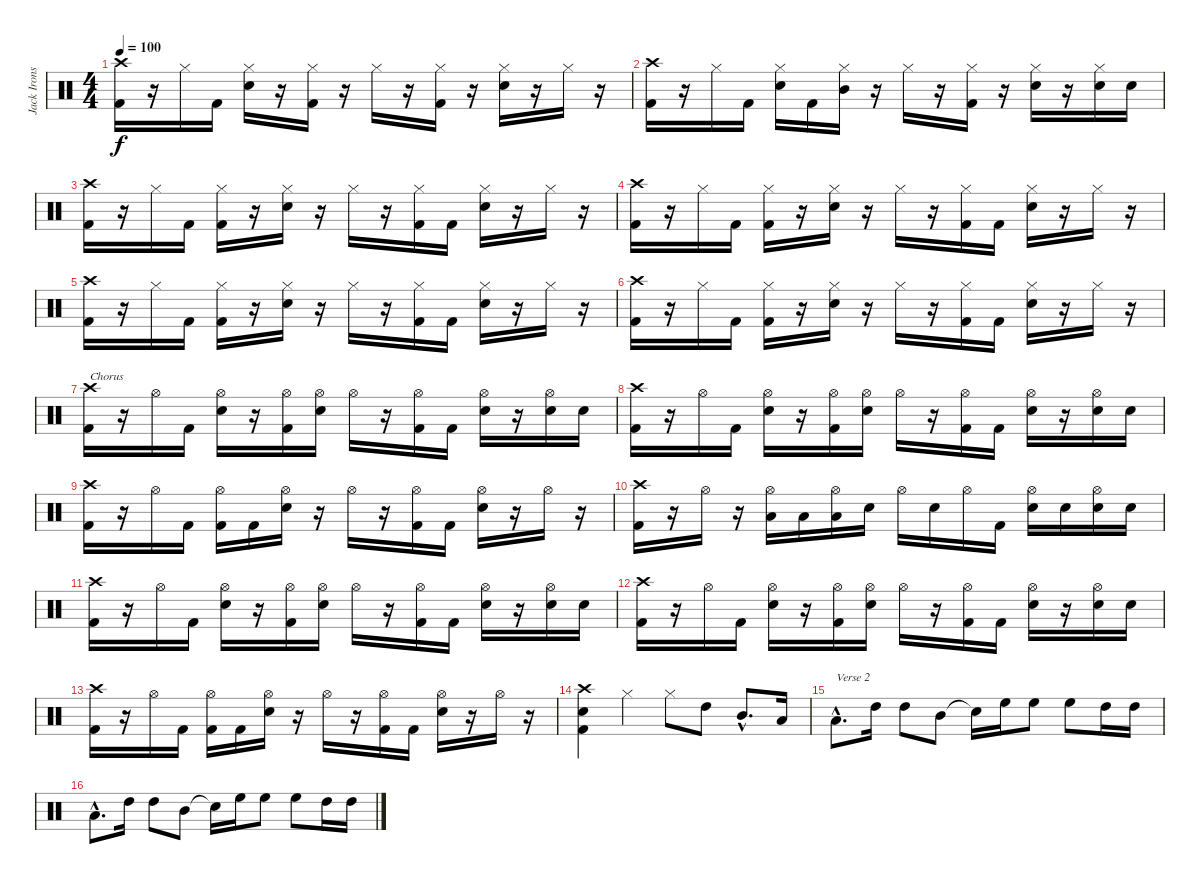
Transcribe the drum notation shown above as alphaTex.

\track ("Jack Irons" "Jack Irons") {instrument percussion}
\staff {score}
\articulation defaults
\ts (4 4)
\tempo 100
\clef neutral
\ks c
("Crash high (hit)" "Kick (hit) 2").16{dy f} r.16 "Hi-Hat (closed)".16 "Kick (hit) 2".16 ("Hi-Hat (closed)" "Snare (hit) 2").16 r.16 ("Hi-Hat (closed)" "Kick (hit) 2").16 r.16 "Hi-Hat (closed)".16 r.16 ("Hi-Hat (closed)" "Kick (hit) 2").16 r.16 ("Hi-Hat (closed)" "Snare (hit) 2").16 r.16 "Hi-Hat (closed)".16 r.16 |
("Crash high (hit)" "Kick (hit) 2").16 r.16 "Hi-Hat (closed)".16 "Kick (hit) 2".16 ("Hi-Hat (closed)" "Snare (hit) 2").16 "Kick (hit) 2".16 ("Hi-Hat (closed)" "Mid Tom (hit)").16 r.16 "Hi-Hat (closed)".16 r.16 ("Hi-Hat (closed)" "Kick (hit) 2").16 r.16 ("Hi-Hat (closed)" "Snare (hit) 2").16 r.16 ("Hi-Hat (closed)" "Snare (hit) 2").16 "Snare (hit) 2".16 |
("Crash high (hit)" "Kick (hit) 2").16 r.16 "Hi-Hat (closed)".16 "Kick (hit) 2".16 ("Hi-Hat (closed)" "Kick (hit) 2").16 r.16 ("Hi-Hat (closed)" "Snare (hit) 2").16 r.16 "Hi-Hat (closed)".16 r.16 ("Hi-Hat (closed)" "Kick (hit) 2").16 "Kick (hit) 2".16 ("Hi-Hat (closed)" "Snare (hit) 2").16 r.16 "Hi-Hat (closed)".16 r.16 |
("Crash high (hit)" "Kick (hit) 2").16 r.16 "Hi-Hat (closed)".16 "Kick (hit) 2".16 ("Hi-Hat (closed)" "Kick (hit) 2").16 r.16 ("Hi-Hat (closed)" "Snare (hit) 2").16 r.16 "Hi-Hat (closed)".16 r.16 ("Hi-Hat (closed)" "Kick (hit) 2").16 "Kick (hit) 2".16 ("Hi-Hat (closed)" "Snare (hit) 2").16 r.16 "Hi-Hat (closed)".16 r.16 |
("Crash high (hit)" "Kick (hit) 2").16 r.16 "Hi-Hat (closed)".16 "Kick (hit) 2".16 ("Hi-Hat (closed)" "Kick (hit) 2").16 r.16 ("Hi-Hat (closed)" "Snare (hit) 2").16 r.16 "Hi-Hat (closed)".16 r.16 ("Hi-Hat (closed)" "Kick (hit) 2").16 "Kick (hit) 2".16 ("Hi-Hat (closed)" "Snare (hit) 2").16 r.16 "Hi-Hat (closed)".16 r.16 |
("Crash high (hit)" "Kick (hit) 2").16 r.16 "Hi-Hat (closed)".16 "Kick (hit) 2".16 ("Hi-Hat (closed)" "Kick (hit) 2").16 r.16 ("Hi-Hat (closed)" "Snare (hit) 2").16 r.16 "Hi-Hat (closed)".16 r.16 ("Hi-Hat (closed)" "Kick (hit) 2").16 "Kick (hit) 2".16 ("Hi-Hat (closed)" "Snare (hit) 2").16 r.16 "Hi-Hat (closed)".16 r.16 |
("Crash high (hit)" "Kick (hit) 2").16{txt "Chorus"} r.16 "Hi-Hat (open)".16 "Kick (hit) 2".16 ("Hi-Hat (open)" "Snare (hit) 2").16 r.16 ("Hi-Hat (open)" "Kick (hit) 2").16 ("Hi-Hat (open)" "Snare (hit) 2").16 "Hi-Hat (open)".16 r.16 ("Hi-Hat (open)" "Kick (hit) 2").16 "Kick (hit) 2".16 ("Hi-Hat (open)" "Snare (hit) 2").16 r.16 ("Hi-Hat (open)" "Snare (hit) 2").16 "Snare (hit) 2".16 |
("Crash high (hit)" "Kick (hit) 2").16 r.16 "Hi-Hat (open)".16 "Kick (hit) 2".16 ("Hi-Hat (open)" "Snare (hit) 2").16 r.16 ("Hi-Hat (open)" "Kick (hit) 2").16 ("Hi-Hat (open)" "Snare (hit) 2").16 "Hi-Hat (open)".16 r.16 ("Hi-Hat (open)" "Kick (hit) 2").16 "Kick (hit) 2".16 ("Hi-Hat (open)" "Snare (hit) 2").16 r.16 ("Hi-Hat (open)" "Snare (hit) 2").16 "Snare (hit) 2".16 |
("Crash high (hit)" "Kick (hit) 2").16 r.16 "Hi-Hat (open)".16 "Kick (hit) 2".16 ("Hi-Hat (open)" "Kick (hit) 2").16 "Kick (hit) 2".16 ("Hi-Hat (open)" "Snare (hit) 2").16 r.16 "Hi-Hat (open)".16 r.16 ("Hi-Hat (open)" "Kick (hit) 2").16 "Kick (hit) 2".16 ("Hi-Hat (open)" "Snare (hit) 2").16 r.16 "Hi-Hat (open)".16 r.16 |
("Crash high (hit)" "Kick (hit) 2").16 r.16 "Hi-Hat (open)".16 r.16 ("Hi-Hat (open)" "Low Floor Tom (hit)").16 "Low Floor Tom (hit)".16 ("Hi-Hat (open)" "Low Floor Tom (hit)").16 "Snare (hit) 2".16 "Hi-Hat (open)".16 "Snare (hit) 2".16 "Hi-Hat (open)".16 "Kick (hit) 2".16 ("Hi-Hat (open)" "Snare (hit) 2").16 "Snare (hit) 2".16 ("Hi-Hat (open)" "Snare (hit) 2").16 "Snare (hit) 2".16 |
("Crash high (hit)" "Kick (hit) 2").16 r.16 "Hi-Hat (open)".16 "Kick (hit) 2".16 ("Hi-Hat (open)" "Snare (hit) 2").16 r.16 ("Hi-Hat (open)" "Kick (hit) 2").16 ("Hi-Hat (open)" "Snare (hit) 2").16 "Hi-Hat (open)".16 r.16 ("Hi-Hat (open)" "Kick (hit) 2").16 "Kick (hit) 2".16 ("Hi-Hat (open)" "Snare (hit) 2").16 r.16 ("Hi-Hat (open)" "Snare (hit) 2").16 "Snare (hit) 2".16 |
("Crash high (hit)" "Kick (hit) 2").16 r.16 "Hi-Hat (open)".16 "Kick (hit) 2".16 ("Hi-Hat (open)" "Snare (hit) 2").16 r.16 ("Hi-Hat (open)" "Kick (hit) 2").16 ("Hi-Hat (open)" "Snare (hit) 2").16 "Hi-Hat (open)".16 r.16 ("Hi-Hat (open)" "Kick (hit) 2").16 "Kick (hit) 2".16 ("Hi-Hat (open)" "Snare (hit) 2").16 r.16 ("Hi-Hat (open)" "Snare (hit) 2").16 "Snare (hit) 2".16 |
("Crash high (hit)" "Kick (hit) 2").16 r.16 "Hi-Hat (open)".16 "Kick (hit) 2".16 ("Hi-Hat (open)" "Kick (hit) 2").16 "Kick (hit) 2".16 ("Hi-Hat (open)" "Snare (hit) 2").16 r.16 "Hi-Hat (open)".16 r.16 ("Hi-Hat (open)" "Kick (hit) 2").16 "Kick (hit) 2".16 ("Hi-Hat (open)" "Snare (hit) 2").16 r.16 "Hi-Hat (open)".16 r.16 |
("Crash high (hit)" "Snare (hit) 2" "Kick (hit) 2").4 "Hi-Hat (closed)".4 "Hi-Hat (closed)".8 "High Tom (hit)".8 "Mid Tom (hit)"{hac}.8{d} "Low Floor Tom (hit)".16 |
"Low Floor Tom (hit)"{hac}.8{d txt "Verse 2"} "High Tom (hit)".16 "High Tom (hit)".8 "Mid Tom (hit)".8 "Snare (hit)"{t}.16 "High Floor Tom (hit)".16 "High Floor Tom (hit)".8 "High Floor Tom (hit)".8 "High Tom (hit)".16 "High Tom (hit)".16 |
"Low Floor Tom (hit)"{hac}.8{d} "High Tom (hit)".16 "High Tom (hit)".8 "Mid Tom (hit)".8 "Snare (hit)"{t}.16 "High Floor Tom (hit)".16 "High Floor Tom (hit)".8 "High Floor Tom (hit)".8 "High Tom (hit)".16 "High Tom (hit)".16
